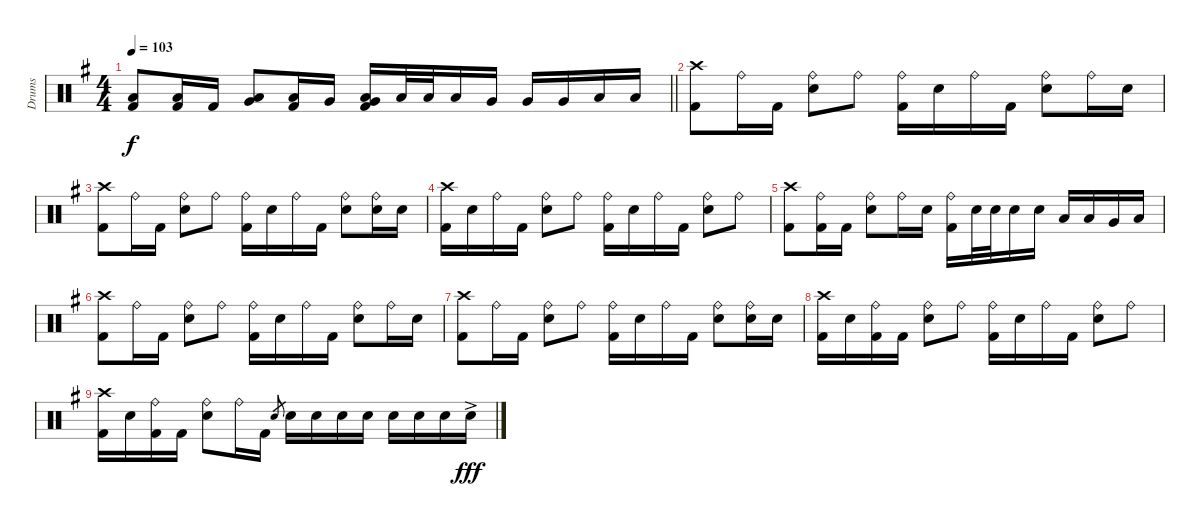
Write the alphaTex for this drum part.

\track ("Drums" "Drums") {instrument percussion}
\staff {score}
\articulation defaults
\ts (4 4)
\tempo 103
\clef neutral
\barLineRight lightlight
\ks eminor
("Low Floor Tom (hit)" "Kick (hit) 2").8{dy f} ("Low Floor Tom (hit)" "Kick (hit) 2").16 "Kick (hit) 2".16 ("Very Low Tom (hit)" "Low Floor Tom (hit)").8 ("Low Floor Tom (hit)" "Kick (hit) 2").16 "Very Low Tom (hit)".16 ("Low Tom (hit)" "Very Low Tom (hit)" "Kick (hit) 2").16 "Low Tom (hit)".32 "Low Tom (hit)".32 "Low Tom (hit)".16 "Very Low Tom (hit)".16 "Very Low Tom (hit)".16 "Very Low Tom (hit)".16 "Low Floor Tom (hit)".16 "Low Floor Tom (hit)".16 |
("Crash high (hit)" "Kick (hit) 2").8 "Ride (bell)".16 "Kick (hit) 2".16 ("Ride (bell)" "Snare (hit) 2").8 "Ride (bell)".8 ("Ride (bell)" "Kick (hit) 2").16 "Snare (hit) 2".16 "Ride (bell)".16 "Kick (hit) 2".16 ("Ride (bell)" "Snare (hit) 2").8 "Ride (bell)".16 "Snare (hit) 2".16 |
("Crash high (hit)" "Kick (hit) 2").8 "Ride (bell)".16 "Kick (hit) 2".16 ("Ride (bell)" "Snare (hit) 2").8 "Ride (bell)".8 ("Ride (bell)" "Kick (hit) 2").16 "Snare (hit) 2".16 "Ride (bell)".16 "Kick (hit) 2".16 ("Ride (bell)" "Snare (hit) 2").8 ("Ride (bell)" "Snare (hit) 2").16 "Snare (hit) 2".16 |
("Crash high (hit)" "Kick (hit) 2").16 "Snare (hit) 2".16 "Ride (bell)".16 "Kick (hit) 2".16 ("Ride (bell)" "Snare (hit) 2").8 "Ride (bell)".8 ("Ride (bell)" "Kick (hit) 2").16 "Snare (hit) 2".16 "Ride (bell)".16 "Kick (hit) 2".16 ("Ride (bell)" "Snare (hit) 2").8 "Ride (bell)".8 |
("Crash high (hit)" "Kick (hit) 2").8 ("Ride (bell)" "Kick (hit) 2").16 "Kick (hit) 2".16 ("Ride (bell)" "Snare (hit) 2").8 "Ride (bell)".16 "Snare (hit) 2".16 ("Ride (bell)" "Kick (hit) 2").16 "Snare (hit) 2".32 "Snare (hit) 2".32 "Snare (hit) 2".16 "Snare (hit) 2".16 "Low Tom (hit)".16 "Low Tom (hit)".16 "Very Low Tom (hit)".16 "Low Floor Tom (hit)".16 |
("Crash high (hit)" "Kick (hit) 2").8 "Ride (bell)".16 "Kick (hit) 2".16 ("Ride (bell)" "Snare (hit) 2").8 "Ride (bell)".8 ("Ride (bell)" "Kick (hit) 2").16 "Snare (hit) 2".16 "Ride (bell)".16 "Kick (hit) 2".16 ("Ride (bell)" "Snare (hit) 2").8 "Ride (bell)".16 "Snare (hit) 2".16 |
("Crash high (hit)" "Kick (hit) 2").8 "Ride (bell)".16 "Kick (hit) 2".16 ("Ride (bell)" "Snare (hit) 2").8 "Ride (bell)".8 ("Ride (bell)" "Kick (hit) 2").16 "Snare (hit) 2".16 "Ride (bell)".16 "Kick (hit) 2".16 ("Ride (bell)" "Snare (hit) 2").8 ("Ride (bell)" "Snare (hit) 2").16 "Snare (hit) 2".16 |
("Crash high (hit)" "Kick (hit) 2").16 "Snare (hit) 2".16 ("Ride (bell)" "Kick (hit) 2").16 "Kick (hit) 2".16 ("Ride (bell)" "Snare (hit) 2").8 "Ride (bell)".8 ("Ride (bell)" "Kick (hit) 2").16 "Snare (hit) 2".16 "Ride (bell)".16 "Kick (hit) 2".16 ("Ride (bell)" "Snare (hit) 2").8 "Ride (bell)".8 |
("Crash high (hit)" "Kick (hit) 2").16 "Snare (hit) 2".16 ("Ride (bell)" "Kick (hit) 2").16 "Kick (hit) 2".16 ("Ride (bell)" "Snare (hit) 2").8 "Ride (bell)".16 "Kick (hit) 2".16 "Snare (hit) 2".8{gr} "Snare (hit) 2".16 "Snare (hit) 2".16 "Snare (hit) 2".16 "Snare (hit) 2".16 "Snare (hit) 2".16 "Snare (hit) 2".16 "Snare (hit) 2".16 "Snare (hit) 2"{ac}.16{dy fff}
